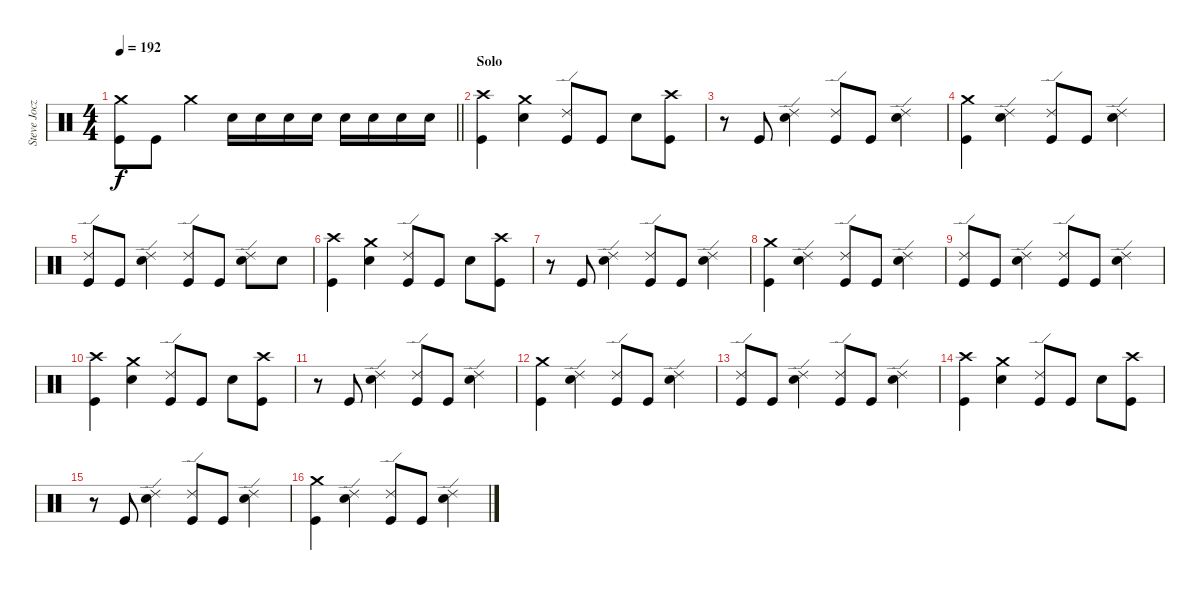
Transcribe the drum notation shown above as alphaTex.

\track ("Steve Jocz" "Steve Jocz") {instrument percussion}
\staff {score}
\articulation defaults
\ts (4 4)
\tempo 192
\clef neutral
\barLineRight lightlight
\ks c
("Crash medium (hit)" "Kick (hit)").8{dy f} "Kick (hit)".8 "Crash medium (hit)".4 "Electric Snare (hit)".16 "Electric Snare (hit)".16 "Electric Snare (hit)".16 "Electric Snare (hit)".16 "Electric Snare (hit)".16 "Electric Snare (hit)".16 "Electric Snare (hit)".16 "Electric Snare (hit)".16 |
\section ("" "Solo")
("Crash high (hit)" "Kick (hit)").4 ("Crash medium (hit)" "Electric Snare (hit)").4 ("Ride (edge) 2" "Kick (hit)").8 "Kick (hit)".8 "Electric Snare (hit)".8 ("Crash high (hit)" "Kick (hit)").8 |
r.8 "Kick (hit)".8 ("Ride (edge) 2" "Electric Snare (hit)").4 ("Ride (edge) 2" "Kick (hit)").8 "Kick (hit)".8 ("Ride (edge) 2" "Electric Snare (hit)").4 |
("Crash medium (hit)" "Kick (hit)").4 ("Ride (edge) 2" "Electric Snare (hit)").4 ("Ride (edge) 2" "Kick (hit)").8 "Kick (hit)".8 ("Ride (edge) 2" "Electric Snare (hit)").4 |
("Ride (edge) 2" "Kick (hit)").8 "Kick (hit)".8 ("Ride (edge) 2" "Electric Snare (hit)").4 ("Ride (edge) 2" "Kick (hit)").8 "Kick (hit)".8 ("Ride (edge) 2" "Electric Snare (hit)").8 "Electric Snare (hit)".8 |
("Crash high (hit)" "Kick (hit)").4 ("Crash medium (hit)" "Electric Snare (hit)").4 ("Ride (edge) 2" "Kick (hit)").8 "Kick (hit)".8 "Electric Snare (hit)".8 ("Crash high (hit)" "Kick (hit)").8 |
r.8 "Kick (hit)".8 ("Ride (edge) 2" "Electric Snare (hit)").4 ("Ride (edge) 2" "Kick (hit)").8 "Kick (hit)".8 ("Ride (edge) 2" "Electric Snare (hit)").4 |
("Crash medium (hit)" "Kick (hit)").4 ("Ride (edge) 2" "Electric Snare (hit)").4 ("Ride (edge) 2" "Kick (hit)").8 "Kick (hit)".8 ("Ride (edge) 2" "Electric Snare (hit)").4 |
("Ride (edge) 2" "Kick (hit)").8 "Kick (hit)".8 ("Ride (edge) 2" "Electric Snare (hit)").4 ("Ride (edge) 2" "Kick (hit)").8 "Kick (hit)".8 ("Ride (edge) 2" "Electric Snare (hit)").4 |
("Crash high (hit)" "Kick (hit)").4 ("Crash medium (hit)" "Electric Snare (hit)").4 ("Ride (edge) 2" "Kick (hit)").8 "Kick (hit)".8 "Electric Snare (hit)".8 ("Crash high (hit)" "Kick (hit)").8 |
r.8 "Kick (hit)".8 ("Ride (edge) 2" "Electric Snare (hit)").4 ("Ride (edge) 2" "Kick (hit)").8 "Kick (hit)".8 ("Ride (edge) 2" "Electric Snare (hit)").4 |
("Crash medium (hit)" "Kick (hit)").4 ("Ride (edge) 2" "Electric Snare (hit)").4 ("Ride (edge) 2" "Kick (hit)").8 "Kick (hit)".8 ("Ride (edge) 2" "Electric Snare (hit)").4 |
("Ride (edge) 2" "Kick (hit)").8 "Kick (hit)".8 ("Ride (edge) 2" "Electric Snare (hit)").4 ("Ride (edge) 2" "Kick (hit)").8 "Kick (hit)".8 ("Ride (edge) 2" "Electric Snare (hit)").4 |
("Crash high (hit)" "Kick (hit)").4 ("Crash medium (hit)" "Electric Snare (hit)").4 ("Ride (edge) 2" "Kick (hit)").8 "Kick (hit)".8 "Electric Snare (hit)".8 ("Crash high (hit)" "Kick (hit)").8 |
r.8 "Kick (hit)".8 ("Ride (edge) 2" "Electric Snare (hit)").4 ("Ride (edge) 2" "Kick (hit)").8 "Kick (hit)".8 ("Ride (edge) 2" "Electric Snare (hit)").4 |
("Crash medium (hit)" "Kick (hit)").4 ("Ride (edge) 2" "Electric Snare (hit)").4 ("Ride (edge) 2" "Kick (hit)").8 "Kick (hit)".8 ("Ride (edge) 2" "Electric Snare (hit)").4
